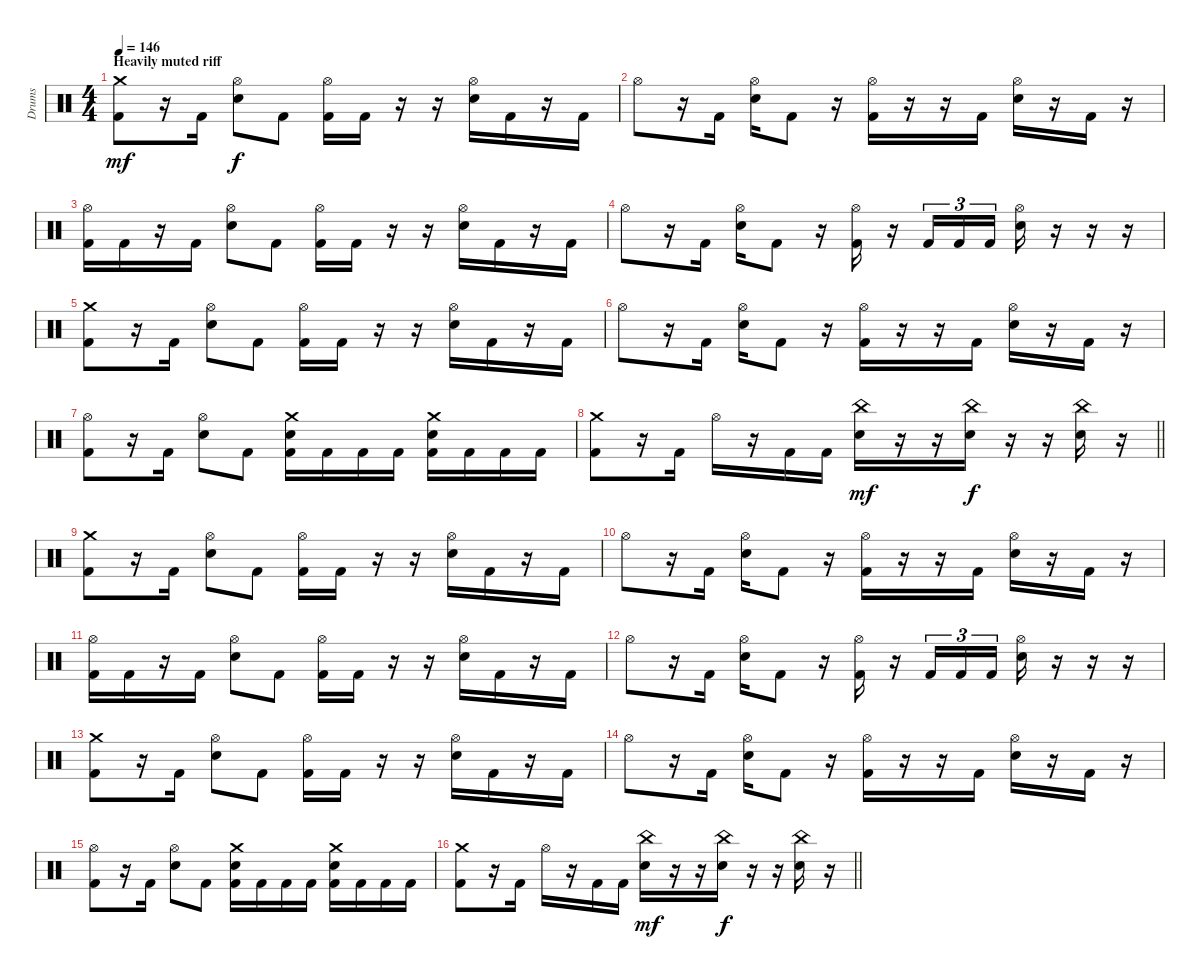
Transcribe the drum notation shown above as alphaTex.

\track ("Drums" "Drums") {instrument percussion}
\staff {score}
\articulation defaults
\ts (4 4)
\section ("" "Heavily muted riff")
\tempo 146
\clef neutral
\ks c
("Crash medium (hit)" "Kick (hit) 2").8{dy mf} r.16 "Kick (hit) 2".16 ("Hi-Hat (open)" "Electric Snare (hit)").8{dy f} "Kick (hit) 2".8 ("Hi-Hat (open)" "Kick (hit) 2").16 "Kick (hit) 2".16 r.16 r.16 ("Hi-Hat (open)" "Electric Snare (hit)").16 "Kick (hit) 2".16 r.16 "Kick (hit) 2".16 |
"Hi-Hat (open)".8 r.16 "Kick (hit) 2".16 ("Hi-Hat (open)" "Electric Snare (hit)").16 "Kick (hit) 2".8 r.16 ("Hi-Hat (open)" "Kick (hit) 2").16 r.16 r.16 "Kick (hit) 2".16 ("Hi-Hat (open)" "Electric Snare (hit)").16 r.16 "Kick (hit) 2".16 r.16 |
("Hi-Hat (open)" "Kick (hit) 2").16 "Kick (hit) 2".16 r.16 "Kick (hit) 2".16 ("Hi-Hat (open)" "Electric Snare (hit)").8 "Kick (hit) 2".8 ("Hi-Hat (open)" "Kick (hit) 2").16 "Kick (hit) 2".16 r.16 r.16 ("Hi-Hat (open)" "Electric Snare (hit)").16 "Kick (hit) 2".16 r.16 "Kick (hit) 2".16 |
"Hi-Hat (open)".8 r.16 "Kick (hit) 2".16 ("Hi-Hat (open)" "Electric Snare (hit)").16 "Kick (hit) 2".8 r.16 ("Hi-Hat (open)" "Kick (hit) 2").16 r.16 "Kick (hit) 2".16{tu (3 2)} "Kick (hit) 2".16{tu (3 2)} "Kick (hit) 2".16{tu (3 2)} ("Hi-Hat (open)" "Electric Snare (hit)").16 r.16 r.16 r.16 |
("Crash medium (hit)" "Kick (hit) 2").8 r.16 "Kick (hit) 2".16 ("Hi-Hat (open)" "Electric Snare (hit)").8 "Kick (hit) 2".8 ("Hi-Hat (open)" "Kick (hit) 2").16 "Kick (hit) 2".16 r.16 r.16 ("Hi-Hat (open)" "Electric Snare (hit)").16 "Kick (hit) 2".16 r.16 "Kick (hit) 2".16 |
"Hi-Hat (open)".8 r.16 "Kick (hit) 2".16 ("Hi-Hat (open)" "Electric Snare (hit)").16 "Kick (hit) 2".8 r.16 ("Hi-Hat (open)" "Kick (hit) 2").16 r.16 r.16 "Kick (hit) 2".16 ("Hi-Hat (open)" "Electric Snare (hit)").16 r.16 "Kick (hit) 2".16 r.16 |
("Hi-Hat (open)" "Kick (hit) 2").8 r.16 "Kick (hit) 2".16 ("Hi-Hat (open)" "Electric Snare (hit)").8 "Kick (hit) 2".8 ("Crash medium (hit)" "Electric Snare (hit)" "Kick (hit) 2").16 "Kick (hit) 2".16 "Kick (hit) 2".16 "Kick (hit) 2".16 ("Crash medium (hit)" "Electric Snare (hit)" "Kick (hit) 2").16 "Kick (hit) 2".16 "Kick (hit) 2".16 "Kick (hit) 2".16 |
\barLineRight lightlight
("Crash medium (hit)" "Kick (hit) 2").8 r.16 "Kick (hit) 2".16 "Hi-Hat (open)".16 r.16 "Kick (hit) 2".16 "Kick (hit) 2".16 ("China (hit)" "Electric Snare (hit)").16{dy mf} r.16 r.16 ("China (hit)" "Electric Snare (hit)").16{dy f} r.16 r.16 ("China (hit)" "Electric Snare (hit)").16 r.16 |
("Crash medium (hit)" "Kick (hit) 2").8 r.16 "Kick (hit) 2".16 ("Hi-Hat (open)" "Electric Snare (hit)").8 "Kick (hit) 2".8 ("Hi-Hat (open)" "Kick (hit) 2").16 "Kick (hit) 2".16 r.16 r.16 ("Hi-Hat (open)" "Electric Snare (hit)").16 "Kick (hit) 2".16 r.16 "Kick (hit) 2".16 |
"Hi-Hat (open)".8 r.16 "Kick (hit) 2".16 ("Hi-Hat (open)" "Electric Snare (hit)").16 "Kick (hit) 2".8 r.16 ("Hi-Hat (open)" "Kick (hit) 2").16 r.16 r.16 "Kick (hit) 2".16 ("Hi-Hat (open)" "Electric Snare (hit)").16 r.16 "Kick (hit) 2".16 r.16 |
("Hi-Hat (open)" "Kick (hit) 2").16 "Kick (hit) 2".16 r.16 "Kick (hit) 2".16 ("Hi-Hat (open)" "Electric Snare (hit)").8 "Kick (hit) 2".8 ("Hi-Hat (open)" "Kick (hit) 2").16 "Kick (hit) 2".16 r.16 r.16 ("Hi-Hat (open)" "Electric Snare (hit)").16 "Kick (hit) 2".16 r.16 "Kick (hit) 2".16 |
"Hi-Hat (open)".8 r.16 "Kick (hit) 2".16 ("Hi-Hat (open)" "Electric Snare (hit)").16 "Kick (hit) 2".8 r.16 ("Hi-Hat (open)" "Kick (hit) 2").16 r.16 "Kick (hit) 2".16{tu (3 2)} "Kick (hit) 2".16{tu (3 2)} "Kick (hit) 2".16{tu (3 2)} ("Hi-Hat (open)" "Electric Snare (hit)").16 r.16 r.16 r.16 |
("Crash medium (hit)" "Kick (hit) 2").8 r.16 "Kick (hit) 2".16 ("Hi-Hat (open)" "Electric Snare (hit)").8 "Kick (hit) 2".8 ("Hi-Hat (open)" "Kick (hit) 2").16 "Kick (hit) 2".16 r.16 r.16 ("Hi-Hat (open)" "Electric Snare (hit)").16 "Kick (hit) 2".16 r.16 "Kick (hit) 2".16 |
"Hi-Hat (open)".8 r.16 "Kick (hit) 2".16 ("Hi-Hat (open)" "Electric Snare (hit)").16 "Kick (hit) 2".8 r.16 ("Hi-Hat (open)" "Kick (hit) 2").16 r.16 r.16 "Kick (hit) 2".16 ("Hi-Hat (open)" "Electric Snare (hit)").16 r.16 "Kick (hit) 2".16 r.16 |
("Hi-Hat (open)" "Kick (hit) 2").8 r.16 "Kick (hit) 2".16 ("Hi-Hat (open)" "Electric Snare (hit)").8 "Kick (hit) 2".8 ("Crash medium (hit)" "Electric Snare (hit)" "Kick (hit) 2").16 "Kick (hit) 2".16 "Kick (hit) 2".16 "Kick (hit) 2".16 ("Crash medium (hit)" "Electric Snare (hit)" "Kick (hit) 2").16 "Kick (hit) 2".16 "Kick (hit) 2".16 "Kick (hit) 2".16 |
\barLineRight lightlight
("Crash medium (hit)" "Kick (hit) 2").8 r.16 "Kick (hit) 2".16 "Hi-Hat (open)".16 r.16 "Kick (hit) 2".16 "Kick (hit) 2".16 ("China (hit)" "Electric Snare (hit)").16{dy mf} r.16 r.16 ("China (hit)" "Electric Snare (hit)").16{dy f} r.16 r.16 ("China (hit)" "Electric Snare (hit)").16 r.16
